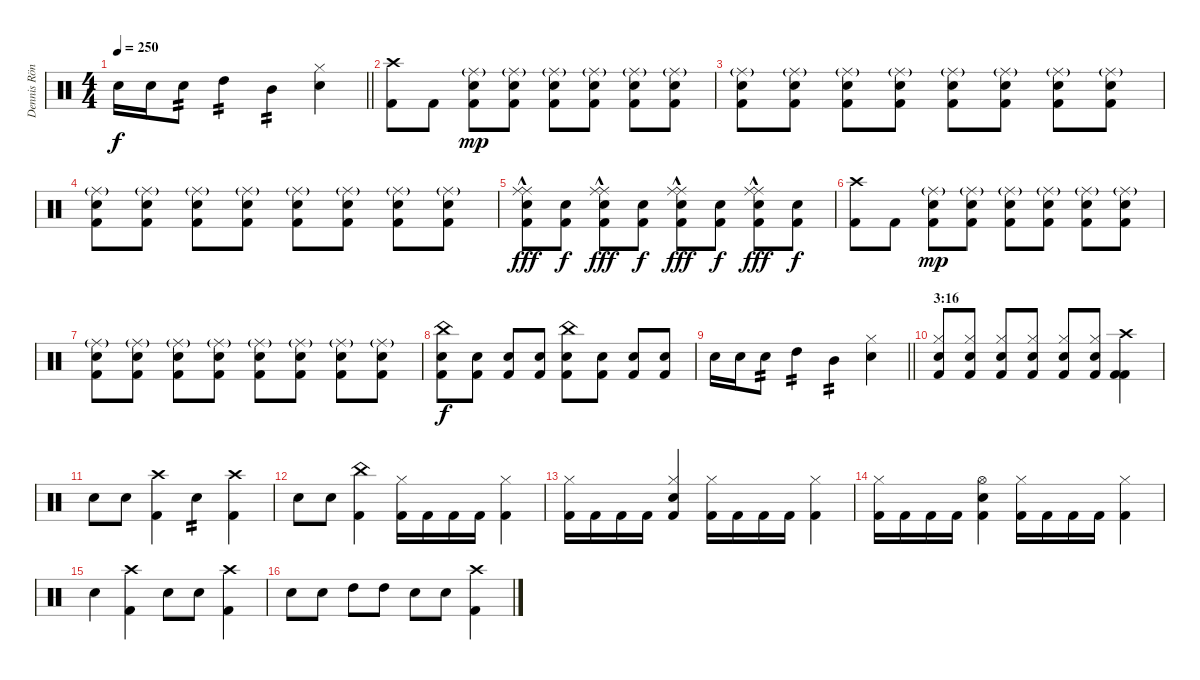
\track ("Dennis Röndum" "Dennis Rön") {instrument percussion}
\staff {score}
\articulation defaults
\ts (4 4)
\tempo 250
\clef neutral
\barLineRight lightlight
\ks c "Snare (hit) 2".16{dy f} "Snare (hit) 2".16 "Snare (hit) 2".8{tp 2} "High Tom (hit)".4{tp 2} "Mid Tom (hit)".4{tp 2}
("Hi-Hat (closed)" "Snare (hit) 2").4 |
("Crash high (hit)" "Kick (hit) 2").8 "Kick (hit) 2".8 ("Snare (hit) 2" "Ride (middle)"{g} "Kick (hit) 2").8{dy mp} ("Snare (hit) 2" "Ride (middle)"{g} "Kick (hit) 2").8 ("Snare (hit) 2" "Ride (middle)"{g} "Kick (hit) 2").8 ("Snare (hit) 2" "Ride (middle)"{g} "Kick (hit) 2").8 ("Snare (hit) 2" "Ride (middle)"{g} "Kick (hit) 2").8 ("Snare (hit) 2" "Ride (middle)"{g} "Kick (hit) 2").8 |
("Snare (hit) 2" "Ride (middle)"{g} "Kick (hit) 2").8 ("Snare (hit) 2" "Ride (middle)"{g} "Kick (hit) 2").8 ("Snare (hit) 2" "Ride (middle)"{g} "Kick (hit) 2").8 ("Snare (hit) 2" "Ride (middle)"{g} "Kick (hit) 2").8 ("Snare (hit) 2" "Ride (middle)"{g} "Kick (hit) 2").8 ("Snare (hit) 2" "Ride (middle)"{g} "Kick (hit) 2").8 ("Snare (hit) 2" "Ride (middle)"{g} "Kick (hit) 2").8 ("Snare (hit) 2" "Ride (middle)"{g} "Kick (hit) 2").8 |
("Snare (hit) 2" "Ride (middle)"{g} "Kick (hit) 2").8 ("Snare (hit) 2" "Ride (middle)"{g} "Kick (hit) 2").8 ("Snare (hit) 2" "Ride (middle)"{g} "Kick (hit) 2").8 ("Snare (hit) 2" "Ride (middle)"{g} "Kick (hit) 2").8 ("Snare (hit) 2" "Ride (middle)"{g} "Kick (hit) 2").8 ("Snare (hit) 2" "Ride (middle)"{g} "Kick (hit) 2").8 ("Snare (hit) 2" "Ride (middle)"{g} "Kick (hit) 2").8 ("Snare (hit) 2" "Ride (middle)"{g} "Kick (hit) 2").8 |
("Ride (middle)" "Snare (hit) 2" "Ride (middle)"{hac} "Kick (hit) 2").8{dy fff} ("Snare (hit) 2" "Kick (hit) 2").8{dy f} ("Ride (middle)" "Snare (hit) 2" "Ride (middle)"{hac} "Kick (hit) 2").8{dy fff} ("Snare (hit) 2" "Kick (hit) 2").8{dy f} ("Ride (middle)" "Snare (hit) 2" "Ride (middle)"{hac} "Kick (hit) 2").8{dy fff} ("Snare (hit) 2" "Kick (hit) 2").8{dy f} ("Ride (middle)" "Snare (hit) 2" "Ride (middle)"{hac} "Kick (hit) 2").8{dy fff} ("Snare (hit) 2" "Kick (hit) 2").8{dy f} |
("Crash high (hit)" "Kick (hit) 2").8 "Kick (hit) 2".8 ("Snare (hit) 2" "Ride (middle)"{g} "Kick (hit) 2").8{dy mp} ("Snare (hit) 2" "Ride (middle)"{g} "Kick (hit) 2").8 ("Snare (hit) 2" "Ride (middle)"{g} "Kick (hit) 2").8 ("Snare (hit) 2" "Ride (middle)"{g} "Kick (hit) 2").8 ("Snare (hit) 2" "Ride (middle)"{g} "Kick (hit) 2").8 ("Snare (hit) 2" "Ride (middle)"{g} "Kick (hit) 2").8 |
("Snare (hit) 2" "Ride (middle)"{g} "Kick (hit) 2").8 ("Snare (hit) 2" "Ride (middle)"{g} "Kick (hit) 2").8 ("Snare (hit) 2" "Ride (middle)"{g} "Kick (hit) 2").8 ("Snare (hit) 2" "Ride (middle)"{g} "Kick (hit) 2").8 ("Snare (hit) 2" "Ride (middle)"{g} "Kick (hit) 2").8 ("Snare (hit) 2" "Ride (middle)"{g} "Kick (hit) 2").8 ("Snare (hit) 2" "Ride (middle)"{g} "Kick (hit) 2").8 ("Snare (hit) 2" "Ride (middle)"{g} "Kick (hit) 2").8 |
("Snare (hit) 2" "China (hit)" "Kick (hit) 2").8{dy f} ("Snare (hit) 2" "Kick (hit) 2").8 ("Snare (hit) 2" "Kick (hit) 2").8 ("Snare (hit) 2" "Kick (hit) 2").8 ("Snare (hit) 2" "China (hit)" "Kick (hit) 2").8 ("Snare (hit) 2" "Kick (hit) 2").8 ("Snare (hit) 2" "Kick (hit) 2").8 ("Snare (hit) 2" "Kick (hit) 2").8 |
\barLineRight lightlight "Snare (hit) 2".16 "Snare (hit) 2".16 "Snare (hit) 2".8{tp 2} "High Tom (hit)".4{tp 2} "Mid Tom (hit)".4{tp 2}
("Hi-Hat (closed)" "Snare (hit) 2").4 |
\section ("" "3:16")
("Hi-Hat (closed)" "Snare (hit) 2" "Kick (hit) 2").8 ("Hi-Hat (closed)" "Snare (hit) 2" "Kick (hit) 2").8 ("Hi-Hat (closed)" "Snare (hit) 2" "Kick (hit) 2").8 ("Hi-Hat (closed)" "Snare (hit) 2" "Kick (hit) 2").8 ("Hi-Hat (closed)" "Snare (hit) 2" "Kick (hit) 2").8 ("Hi-Hat (closed)" "Snare (hit) 2" "Kick (hit) 2").8 ("Crash high (hit)" "Kick (hit) 2" "Kick (hit) 2").4 |
"Snare (hit) 2".8 "Snare (hit) 2".8 ("Crash high (hit)" "Kick (hit) 2").4 "Snare (hit) 2".4{tp 2} ("Crash high (hit)" "Kick (hit) 2").4 |
"Snare (hit) 2".8 "Snare (hit) 2".8 ("China (hit)" "Kick (hit) 2").4 ("Hi-Hat (closed)" "Kick (hit) 2").16 "Kick (hit) 2".16 "Kick (hit) 2".16 "Kick (hit) 2".16 ("Hi-Hat (closed)" "Kick (hit) 2").4 |
("Hi-Hat (closed)" "Kick (hit) 2").16 "Kick (hit) 2".16 "Kick (hit) 2".16 "Kick (hit) 2".16 ("Hi-Hat (closed)" "Snare (hit) 2" "Kick (hit) 2").4 ("Hi-Hat (closed)" "Kick (hit) 2").16 "Kick (hit) 2".16 "Kick (hit) 2".16 "Kick (hit) 2".16 ("Hi-Hat (closed)" "Kick (hit) 2").4 |
("Hi-Hat (closed)" "Kick (hit) 2").16 "Kick (hit) 2".16 "Kick (hit) 2".16 "Kick (hit) 2".16 ("Hi-Hat (open)" "Snare (hit) 2" "Kick (hit) 2").4 ("Hi-Hat (closed)" "Kick (hit) 2").16 "Kick (hit) 2".16 "Kick (hit) 2".16 "Kick (hit) 2".16 ("Hi-Hat (closed)" "Kick (hit) 2").4 |
"Snare (hit) 2".4 ("Crash high (hit)" "Kick (hit) 2").4 "Snare (hit) 2".8 "Snare (hit) 2".8 ("Crash high (hit)" "Kick (hit) 2").4 |
"Snare (hit) 2".8 "Snare (hit) 2".8 "High Tom (hit)".8 "High Tom (hit)".8 "Snare (hit) 2".8 "Snare (hit) 2".8 ("Crash high (hit)" "Kick (hit) 2").4
